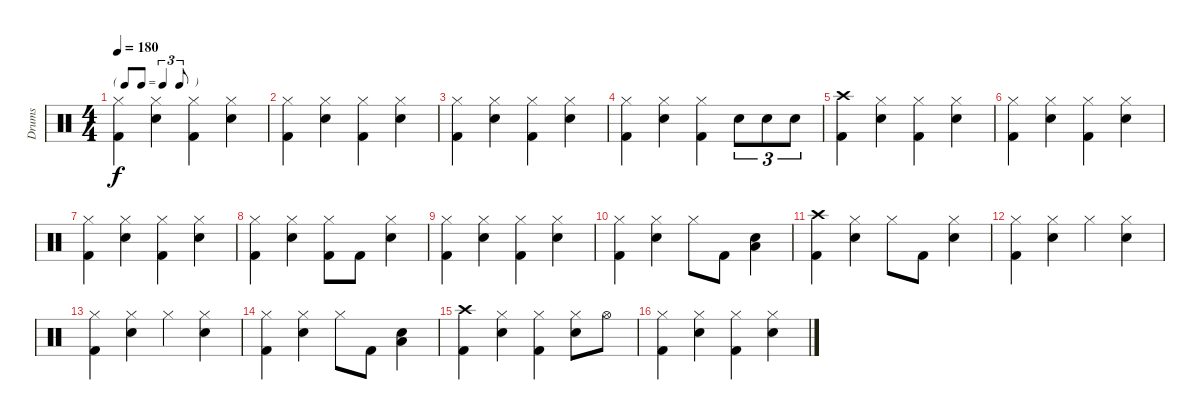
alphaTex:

\track ("Drums" "Drums") {instrument percussion}
\staff {score}
\articulation defaults
\ts (4 4)
\tf triplet8th
\tempo 180
\clef neutral
\ks c
("Hi-Hat (closed)" "Kick (hit) 2").4{dy f} ("Hi-Hat (closed)" "Snare (hit) 2").4 ("Hi-Hat (closed)" "Kick (hit) 2").4 ("Hi-Hat (closed)" "Snare (hit) 2").4 |
("Hi-Hat (closed)" "Kick (hit) 2").4 ("Hi-Hat (closed)" "Snare (hit) 2").4 ("Hi-Hat (closed)" "Kick (hit) 2").4 ("Hi-Hat (closed)" "Snare (hit) 2").4 |
("Hi-Hat (closed)" "Kick (hit) 2").4 ("Hi-Hat (closed)" "Snare (hit) 2").4 ("Hi-Hat (closed)" "Kick (hit) 2").4 ("Hi-Hat (closed)" "Snare (hit) 2").4 |
("Hi-Hat (closed)" "Kick (hit) 2").4 ("Hi-Hat (closed)" "Snare (hit) 2").4 ("Hi-Hat (closed)" "Kick (hit) 2").4 "Snare (hit) 2".8{tu (3 2)} "Snare (hit) 2".8{tu (3 2)} "Snare (hit) 2".8{tu (3 2)} |
("Crash high (hit)" "Kick (hit) 2").4 ("Hi-Hat (closed)" "Snare (hit) 2").4 ("Hi-Hat (closed)" "Kick (hit) 2").4 ("Hi-Hat (closed)" "Snare (hit) 2").4 |
("Hi-Hat (closed)" "Kick (hit) 2").4 ("Hi-Hat (closed)" "Snare (hit) 2").4 ("Hi-Hat (closed)" "Kick (hit) 2").4 ("Hi-Hat (closed)" "Snare (hit) 2").4 |
("Hi-Hat (closed)" "Kick (hit) 2").4 ("Hi-Hat (closed)" "Snare (hit) 2").4 ("Hi-Hat (closed)" "Kick (hit) 2").4 ("Hi-Hat (closed)" "Snare (hit) 2").4 |
("Hi-Hat (closed)" "Kick (hit) 2").4 ("Hi-Hat (closed)" "Snare (hit) 2").4 ("Hi-Hat (closed)" "Kick (hit) 2").8 "Kick (hit) 2".8 ("Hi-Hat (closed)" "Snare (hit) 2").4 |
("Hi-Hat (closed)" "Kick (hit) 2").4 ("Hi-Hat (closed)" "Snare (hit) 2").4 ("Hi-Hat (closed)" "Kick (hit) 2").4 ("Hi-Hat (closed)" "Snare (hit) 2").4 |
("Hi-Hat (closed)" "Kick (hit) 2").4 ("Hi-Hat (closed)" "Snare (hit) 2").4 "Hi-Hat (closed)".8 "Kick (hit) 2".8 ("Snare (hit) 2" "Low Tom (hit)").4 |
("Crash high (hit)" "Kick (hit) 2").4 ("Hi-Hat (closed)" "Snare (hit) 2").4 "Hi-Hat (closed)".8 "Kick (hit) 2".8 ("Hi-Hat (closed)" "Snare (hit) 2").4 |
("Hi-Hat (closed)" "Kick (hit) 2").4 ("Hi-Hat (closed)" "Snare (hit) 2").4 "Hi-Hat (closed)".4 ("Hi-Hat (closed)" "Snare (hit) 2").4 |
("Hi-Hat (closed)" "Kick (hit) 2").4 ("Hi-Hat (closed)" "Snare (hit) 2").4 "Hi-Hat (closed)".4 ("Hi-Hat (closed)" "Snare (hit) 2").4 |
("Hi-Hat (closed)" "Kick (hit) 2").4 ("Hi-Hat (closed)" "Snare (hit) 2").4 "Hi-Hat (closed)".8 "Kick (hit) 2".8 ("Snare (hit) 2" "Low Tom (hit)").4 |
("Crash high (hit)" "Kick (hit) 2").4 ("Hi-Hat (closed)" "Snare (hit) 2").4 ("Hi-Hat (closed)" "Kick (hit) 2").4 ("Hi-Hat (closed)" "Snare (hit) 2").8 "Hi-Hat (open)".8 |
("Hi-Hat (closed)" "Kick (hit) 2").4 ("Hi-Hat (closed)" "Snare (hit) 2").4 ("Hi-Hat (closed)" "Kick (hit) 2").4 ("Hi-Hat (closed)" "Snare (hit) 2").4
